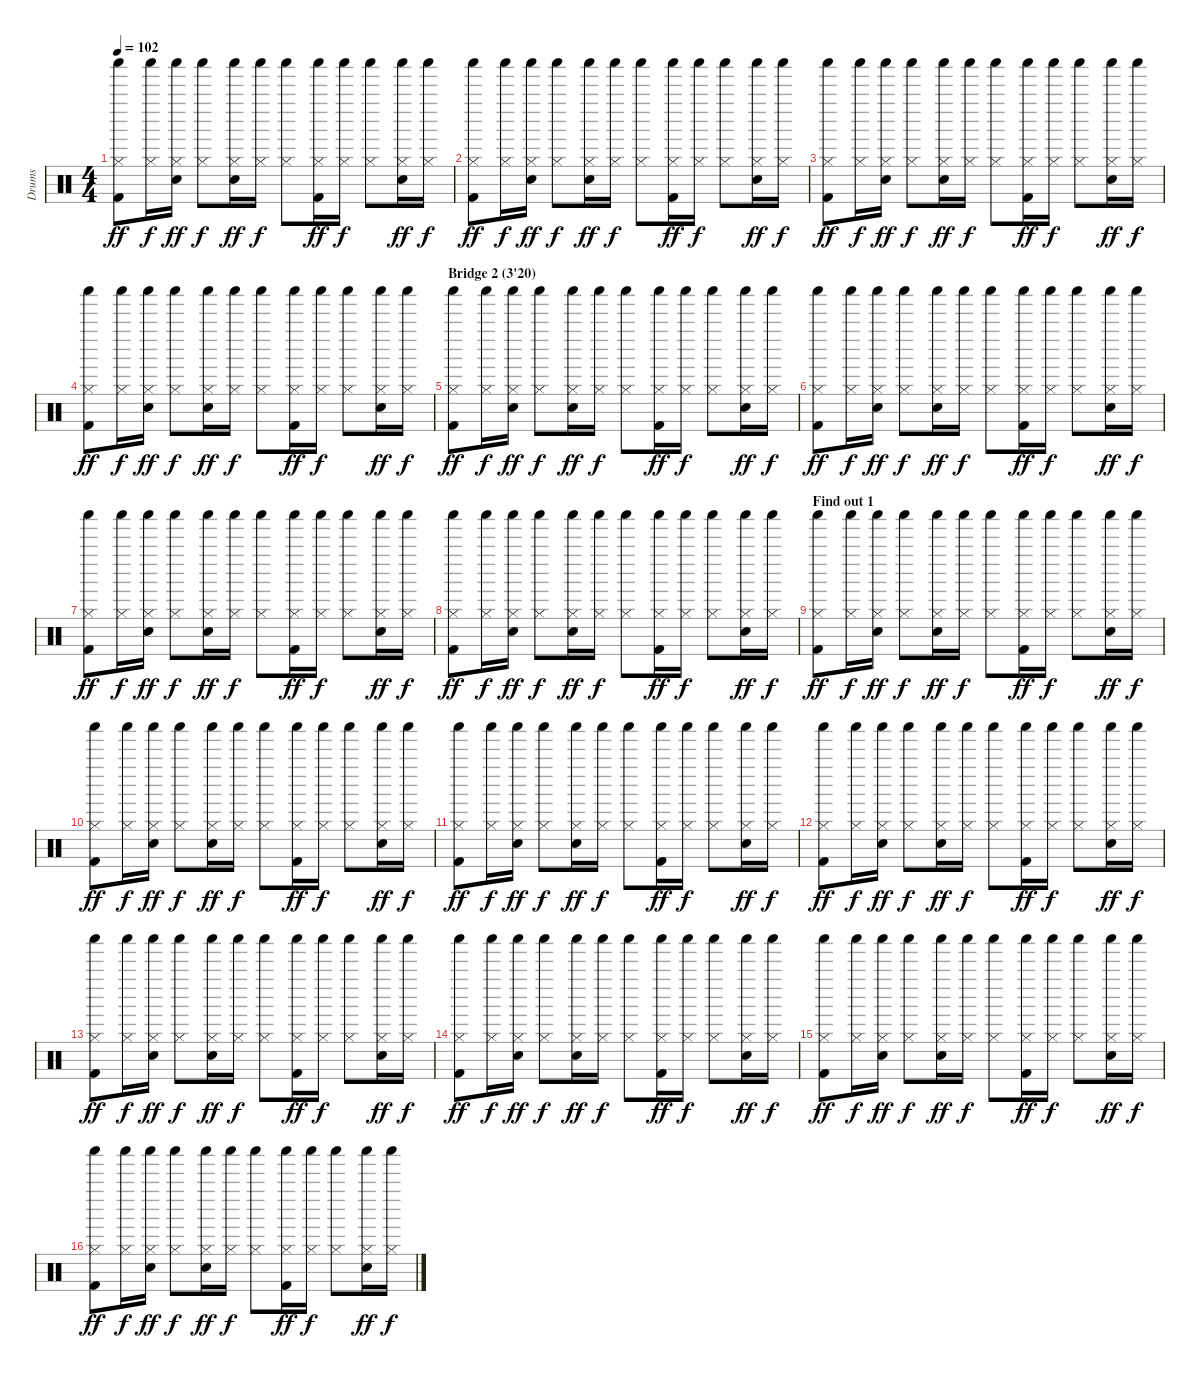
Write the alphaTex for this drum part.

\track ("Drums" "Drums") {instrument percussion}
\staff {score}
\articulation defaults
\ts (4 4)
\tempo 102
\clef neutral
\ks c
("Hi-Hat (closed)" "Shaker (hit)" "Kick (hit) 2").8{dy ff} ("Hi-Hat (closed)" "Shaker (hit)").16{dy f} ("Hi-Hat (closed)" "Shaker (hit)" "Snare (hit) 2").16{dy ff} ("Hi-Hat (closed)" "Shaker (hit)").8{dy f} ("Hi-Hat (closed)" "Shaker (hit)" "Snare (hit) 2").16{dy ff} ("Hi-Hat (closed)" "Shaker (hit)").16{dy f} ("Hi-Hat (closed)" "Shaker (hit)").8 ("Hi-Hat (closed)" "Shaker (hit)" "Kick (hit) 2").16{dy ff} ("Hi-Hat (closed)" "Shaker (hit)").16{dy f} ("Hi-Hat (closed)" "Shaker (hit)").8 ("Hi-Hat (closed)" "Shaker (hit)" "Snare (hit) 2").16{dy ff} ("Hi-Hat (closed)" "Shaker (hit)").16{dy f} |
("Hi-Hat (closed)" "Shaker (hit)" "Kick (hit) 2").8{dy ff} ("Hi-Hat (closed)" "Shaker (hit)").16{dy f} ("Hi-Hat (closed)" "Shaker (hit)" "Snare (hit) 2").16{dy ff} ("Hi-Hat (closed)" "Shaker (hit)").8{dy f} ("Hi-Hat (closed)" "Shaker (hit)" "Snare (hit) 2").16{dy ff} ("Hi-Hat (closed)" "Shaker (hit)").16{dy f} ("Hi-Hat (closed)" "Shaker (hit)").8 ("Hi-Hat (closed)" "Shaker (hit)" "Kick (hit) 2").16{dy ff} ("Hi-Hat (closed)" "Shaker (hit)").16{dy f} ("Hi-Hat (closed)" "Shaker (hit)").8 ("Hi-Hat (closed)" "Shaker (hit)" "Snare (hit) 2").16{dy ff} ("Hi-Hat (closed)" "Shaker (hit)").16{dy f} |
("Hi-Hat (closed)" "Shaker (hit)" "Kick (hit) 2").8{dy ff} ("Hi-Hat (closed)" "Shaker (hit)").16{dy f} ("Hi-Hat (closed)" "Shaker (hit)" "Snare (hit) 2").16{dy ff} ("Hi-Hat (closed)" "Shaker (hit)").8{dy f} ("Hi-Hat (closed)" "Shaker (hit)" "Snare (hit) 2").16{dy ff} ("Hi-Hat (closed)" "Shaker (hit)").16{dy f} ("Hi-Hat (closed)" "Shaker (hit)").8 ("Hi-Hat (closed)" "Shaker (hit)" "Kick (hit) 2").16{dy ff} ("Hi-Hat (closed)" "Shaker (hit)").16{dy f} ("Hi-Hat (closed)" "Shaker (hit)").8 ("Hi-Hat (closed)" "Shaker (hit)" "Snare (hit) 2").16{dy ff} ("Hi-Hat (closed)" "Shaker (hit)").16{dy f} |
("Hi-Hat (closed)" "Shaker (hit)" "Kick (hit) 2").8{dy ff} ("Hi-Hat (closed)" "Shaker (hit)").16{dy f} ("Hi-Hat (closed)" "Shaker (hit)" "Snare (hit) 2").16{dy ff} ("Hi-Hat (closed)" "Shaker (hit)").8{dy f} ("Hi-Hat (closed)" "Shaker (hit)" "Snare (hit) 2").16{dy ff} ("Hi-Hat (closed)" "Shaker (hit)").16{dy f} ("Hi-Hat (closed)" "Shaker (hit)").8 ("Hi-Hat (closed)" "Shaker (hit)" "Kick (hit) 2").16{dy ff} ("Hi-Hat (closed)" "Shaker (hit)").16{dy f} ("Hi-Hat (closed)" "Shaker (hit)").8 ("Hi-Hat (closed)" "Shaker (hit)" "Snare (hit) 2").16{dy ff} ("Hi-Hat (closed)" "Shaker (hit)").16{dy f} |
\section ("" "Bridge 2 (3'20)")
("Hi-Hat (closed)" "Shaker (hit)" "Kick (hit) 2").8{dy ff} ("Hi-Hat (closed)" "Shaker (hit)").16{dy f} ("Hi-Hat (closed)" "Shaker (hit)" "Snare (hit) 2").16{dy ff} ("Hi-Hat (closed)" "Shaker (hit)").8{dy f} ("Hi-Hat (closed)" "Shaker (hit)" "Snare (hit) 2").16{dy ff} ("Hi-Hat (closed)" "Shaker (hit)").16{dy f} ("Hi-Hat (closed)" "Shaker (hit)").8 ("Hi-Hat (closed)" "Shaker (hit)" "Kick (hit) 2").16{dy ff} ("Hi-Hat (closed)" "Shaker (hit)").16{dy f} ("Hi-Hat (closed)" "Shaker (hit)").8 ("Hi-Hat (closed)" "Shaker (hit)" "Snare (hit) 2").16{dy ff} ("Hi-Hat (closed)" "Shaker (hit)").16{dy f} |
("Hi-Hat (closed)" "Shaker (hit)" "Kick (hit) 2").8{dy ff} ("Hi-Hat (closed)" "Shaker (hit)").16{dy f} ("Hi-Hat (closed)" "Shaker (hit)" "Snare (hit) 2").16{dy ff} ("Hi-Hat (closed)" "Shaker (hit)").8{dy f} ("Hi-Hat (closed)" "Shaker (hit)" "Snare (hit) 2").16{dy ff} ("Hi-Hat (closed)" "Shaker (hit)").16{dy f} ("Hi-Hat (closed)" "Shaker (hit)").8 ("Hi-Hat (closed)" "Shaker (hit)" "Kick (hit) 2").16{dy ff} ("Hi-Hat (closed)" "Shaker (hit)").16{dy f} ("Hi-Hat (closed)" "Shaker (hit)").8 ("Hi-Hat (closed)" "Shaker (hit)" "Snare (hit) 2").16{dy ff} ("Hi-Hat (closed)" "Shaker (hit)").16{dy f} |
("Hi-Hat (closed)" "Shaker (hit)" "Kick (hit) 2").8{dy ff} ("Hi-Hat (closed)" "Shaker (hit)").16{dy f} ("Hi-Hat (closed)" "Shaker (hit)" "Snare (hit) 2").16{dy ff} ("Hi-Hat (closed)" "Shaker (hit)").8{dy f} ("Hi-Hat (closed)" "Shaker (hit)" "Snare (hit) 2").16{dy ff} ("Hi-Hat (closed)" "Shaker (hit)").16{dy f} ("Hi-Hat (closed)" "Shaker (hit)").8 ("Hi-Hat (closed)" "Shaker (hit)" "Kick (hit) 2").16{dy ff} ("Hi-Hat (closed)" "Shaker (hit)").16{dy f} ("Hi-Hat (closed)" "Shaker (hit)").8 ("Hi-Hat (closed)" "Shaker (hit)" "Snare (hit) 2").16{dy ff} ("Hi-Hat (closed)" "Shaker (hit)").16{dy f} |
("Hi-Hat (closed)" "Shaker (hit)" "Kick (hit) 2").8{dy ff} ("Hi-Hat (closed)" "Shaker (hit)").16{dy f} ("Hi-Hat (closed)" "Shaker (hit)" "Snare (hit) 2").16{dy ff} ("Hi-Hat (closed)" "Shaker (hit)").8{dy f} ("Hi-Hat (closed)" "Shaker (hit)" "Snare (hit) 2").16{dy ff} ("Hi-Hat (closed)" "Shaker (hit)").16{dy f} ("Hi-Hat (closed)" "Shaker (hit)").8 ("Hi-Hat (closed)" "Shaker (hit)" "Kick (hit) 2").16{dy ff} ("Hi-Hat (closed)" "Shaker (hit)").16{dy f} ("Hi-Hat (closed)" "Shaker (hit)").8 ("Hi-Hat (closed)" "Shaker (hit)" "Snare (hit) 2").16{dy ff} ("Hi-Hat (closed)" "Shaker (hit)").16{dy f} |
\section ("" "Find out 1")
("Hi-Hat (closed)" "Shaker (hit)" "Kick (hit) 2").8{dy ff} ("Hi-Hat (closed)" "Shaker (hit)").16{dy f} ("Hi-Hat (closed)" "Shaker (hit)" "Snare (hit) 2").16{dy ff} ("Hi-Hat (closed)" "Shaker (hit)").8{dy f} ("Hi-Hat (closed)" "Shaker (hit)" "Snare (hit) 2").16{dy ff} ("Hi-Hat (closed)" "Shaker (hit)").16{dy f} ("Hi-Hat (closed)" "Shaker (hit)").8 ("Hi-Hat (closed)" "Shaker (hit)" "Kick (hit) 2").16{dy ff} ("Hi-Hat (closed)" "Shaker (hit)").16{dy f} ("Hi-Hat (closed)" "Shaker (hit)").8 ("Hi-Hat (closed)" "Shaker (hit)" "Snare (hit) 2").16{dy ff} ("Hi-Hat (closed)" "Shaker (hit)").16{dy f} |
("Hi-Hat (closed)" "Shaker (hit)" "Kick (hit) 2").8{dy ff} ("Hi-Hat (closed)" "Shaker (hit)").16{dy f} ("Hi-Hat (closed)" "Shaker (hit)" "Snare (hit) 2").16{dy ff} ("Hi-Hat (closed)" "Shaker (hit)").8{dy f} ("Hi-Hat (closed)" "Shaker (hit)" "Snare (hit) 2").16{dy ff} ("Hi-Hat (closed)" "Shaker (hit)").16{dy f} ("Hi-Hat (closed)" "Shaker (hit)").8 ("Hi-Hat (closed)" "Shaker (hit)" "Kick (hit) 2").16{dy ff} ("Hi-Hat (closed)" "Shaker (hit)").16{dy f} ("Hi-Hat (closed)" "Shaker (hit)").8 ("Hi-Hat (closed)" "Shaker (hit)" "Snare (hit) 2").16{dy ff} ("Hi-Hat (closed)" "Shaker (hit)").16{dy f} |
("Hi-Hat (closed)" "Shaker (hit)" "Kick (hit) 2").8{dy ff} ("Hi-Hat (closed)" "Shaker (hit)").16{dy f} ("Hi-Hat (closed)" "Shaker (hit)" "Snare (hit) 2").16{dy ff} ("Hi-Hat (closed)" "Shaker (hit)").8{dy f} ("Hi-Hat (closed)" "Shaker (hit)" "Snare (hit) 2").16{dy ff} ("Hi-Hat (closed)" "Shaker (hit)").16{dy f} ("Hi-Hat (closed)" "Shaker (hit)").8 ("Hi-Hat (closed)" "Shaker (hit)" "Kick (hit) 2").16{dy ff} ("Hi-Hat (closed)" "Shaker (hit)").16{dy f} ("Hi-Hat (closed)" "Shaker (hit)").8 ("Hi-Hat (closed)" "Shaker (hit)" "Snare (hit) 2").16{dy ff} ("Hi-Hat (closed)" "Shaker (hit)").16{dy f} |
("Hi-Hat (closed)" "Shaker (hit)" "Kick (hit) 2").8{dy ff} ("Hi-Hat (closed)" "Shaker (hit)").16{dy f} ("Hi-Hat (closed)" "Shaker (hit)" "Snare (hit) 2").16{dy ff} ("Hi-Hat (closed)" "Shaker (hit)").8{dy f} ("Hi-Hat (closed)" "Shaker (hit)" "Snare (hit) 2").16{dy ff} ("Hi-Hat (closed)" "Shaker (hit)").16{dy f} ("Hi-Hat (closed)" "Shaker (hit)").8 ("Hi-Hat (closed)" "Shaker (hit)" "Kick (hit) 2").16{dy ff} ("Hi-Hat (closed)" "Shaker (hit)").16{dy f} ("Hi-Hat (closed)" "Shaker (hit)").8 ("Hi-Hat (closed)" "Shaker (hit)" "Snare (hit) 2").16{dy ff} ("Hi-Hat (closed)" "Shaker (hit)").16{dy f} |
("Hi-Hat (closed)" "Shaker (hit)" "Kick (hit) 2").8{dy ff} ("Hi-Hat (closed)" "Shaker (hit)").16{dy f} ("Hi-Hat (closed)" "Shaker (hit)" "Snare (hit) 2").16{dy ff} ("Hi-Hat (closed)" "Shaker (hit)").8{dy f} ("Hi-Hat (closed)" "Shaker (hit)" "Snare (hit) 2").16{dy ff} ("Hi-Hat (closed)" "Shaker (hit)").16{dy f} ("Hi-Hat (closed)" "Shaker (hit)").8 ("Hi-Hat (closed)" "Shaker (hit)" "Kick (hit) 2").16{dy ff} ("Hi-Hat (closed)" "Shaker (hit)").16{dy f} ("Hi-Hat (closed)" "Shaker (hit)").8 ("Hi-Hat (closed)" "Shaker (hit)" "Snare (hit) 2").16{dy ff} ("Hi-Hat (closed)" "Shaker (hit)").16{dy f} |
("Hi-Hat (closed)" "Shaker (hit)" "Kick (hit) 2").8{dy ff} ("Hi-Hat (closed)" "Shaker (hit)").16{dy f} ("Hi-Hat (closed)" "Shaker (hit)" "Snare (hit) 2").16{dy ff} ("Hi-Hat (closed)" "Shaker (hit)").8{dy f} ("Hi-Hat (closed)" "Shaker (hit)" "Snare (hit) 2").16{dy ff} ("Hi-Hat (closed)" "Shaker (hit)").16{dy f} ("Hi-Hat (closed)" "Shaker (hit)").8 ("Hi-Hat (closed)" "Shaker (hit)" "Kick (hit) 2").16{dy ff} ("Hi-Hat (closed)" "Shaker (hit)").16{dy f} ("Hi-Hat (closed)" "Shaker (hit)").8 ("Hi-Hat (closed)" "Shaker (hit)" "Snare (hit) 2").16{dy ff} ("Hi-Hat (closed)" "Shaker (hit)").16{dy f} |
("Hi-Hat (closed)" "Shaker (hit)" "Kick (hit) 2").8{dy ff} ("Hi-Hat (closed)" "Shaker (hit)").16{dy f} ("Hi-Hat (closed)" "Shaker (hit)" "Snare (hit) 2").16{dy ff} ("Hi-Hat (closed)" "Shaker (hit)").8{dy f} ("Hi-Hat (closed)" "Shaker (hit)" "Snare (hit) 2").16{dy ff} ("Hi-Hat (closed)" "Shaker (hit)").16{dy f} ("Hi-Hat (closed)" "Shaker (hit)").8 ("Hi-Hat (closed)" "Shaker (hit)" "Kick (hit) 2").16{dy ff} ("Hi-Hat (closed)" "Shaker (hit)").16{dy f} ("Hi-Hat (closed)" "Shaker (hit)").8 ("Hi-Hat (closed)" "Shaker (hit)" "Snare (hit) 2").16{dy ff} ("Hi-Hat (closed)" "Shaker (hit)").16{dy f} |
("Hi-Hat (closed)" "Shaker (hit)" "Kick (hit) 2").8{dy ff} ("Hi-Hat (closed)" "Shaker (hit)").16{dy f} ("Hi-Hat (closed)" "Shaker (hit)" "Snare (hit) 2").16{dy ff} ("Hi-Hat (closed)" "Shaker (hit)").8{dy f} ("Hi-Hat (closed)" "Shaker (hit)" "Snare (hit) 2").16{dy ff} ("Hi-Hat (closed)" "Shaker (hit)").16{dy f} ("Hi-Hat (closed)" "Shaker (hit)").8 ("Hi-Hat (closed)" "Shaker (hit)" "Kick (hit) 2").16{dy ff} ("Hi-Hat (closed)" "Shaker (hit)").16{dy f} ("Hi-Hat (closed)" "Shaker (hit)").8 ("Hi-Hat (closed)" "Shaker (hit)" "Snare (hit) 2").16{dy ff} ("Hi-Hat (closed)" "Shaker (hit)").16{dy f}
